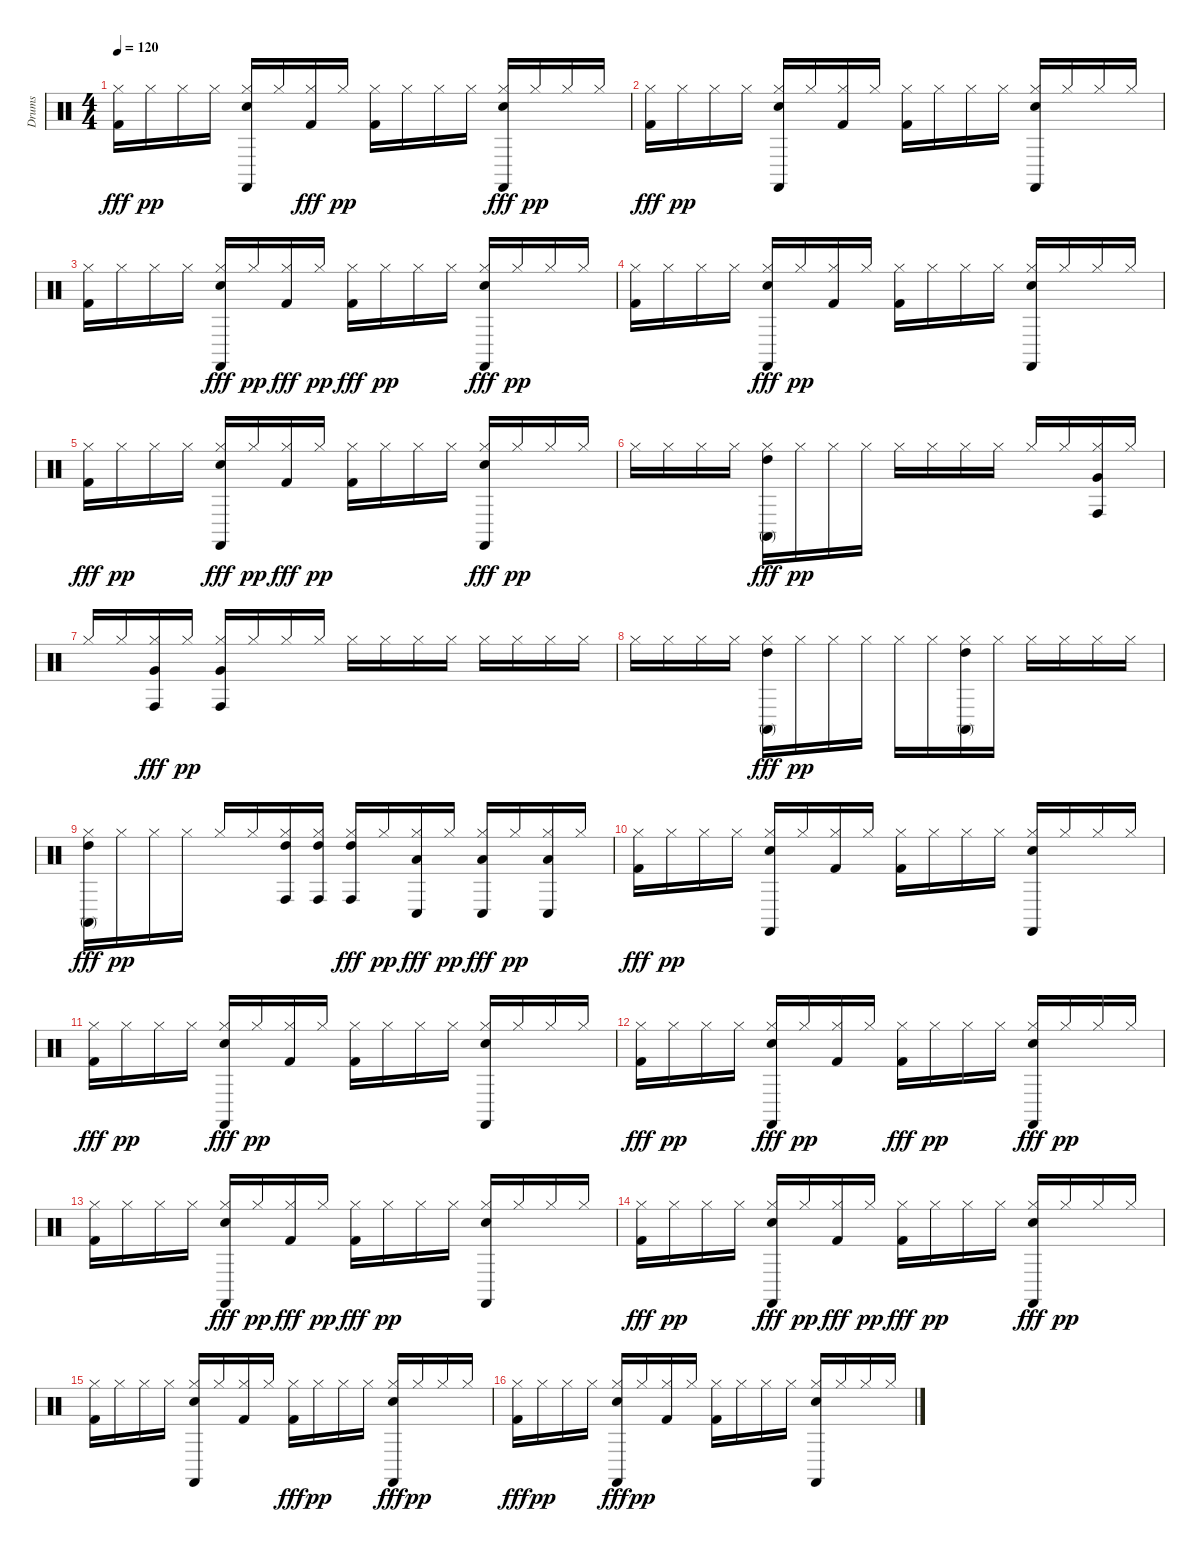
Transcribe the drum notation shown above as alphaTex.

\track ("Drums" "Drums") {instrument percussion}
\staff {score}
\articulation defaults
\ts (4 4)
\tempo 120
\clef neutral
\ks c
("Hi-Hat (closed)" "Kick (hit) 2").16{dy fff} "Hi-Hat (closed)".16{dy pp} "Hi-Hat (closed)".16 "Hi-Hat (closed)".16 ("Snare (hit) 2" "Castanets (hit)" "Hi-Hat (closed)").16 "Hi-Hat (closed)".16 ("Hi-Hat (closed)" "Kick (hit) 2").16{dy fff} "Hi-Hat (closed)".16{dy pp} ("Kick (hit) 2" "Hi-Hat (closed)").16 "Hi-Hat (closed)".16 "Hi-Hat (closed)".16 "Hi-Hat (closed)".16 ("Hi-Hat (closed)" "Castanets (hit)" "Snare (hit) 2").16{dy fff} "Hi-Hat (closed)".16{dy pp} "Hi-Hat (closed)".16 "Hi-Hat (closed)".16 |
("Hi-Hat (closed)" "Kick (hit) 2").16{dy fff} "Hi-Hat (closed)".16{dy pp} "Hi-Hat (closed)".16 "Hi-Hat (closed)".16 ("Castanets (hit)" "Snare (hit) 2" "Hi-Hat (closed)").16 "Hi-Hat (closed)".16 ("Kick (hit) 2" "Hi-Hat (closed)").16 "Hi-Hat (closed)".16 ("Kick (hit) 2" "Hi-Hat (closed)").16 "Hi-Hat (closed)".16 "Hi-Hat (closed)".16 "Hi-Hat (closed)".16 ("Castanets (hit)" "Snare (hit) 2" "Hi-Hat (closed)").16 "Hi-Hat (closed)".16 "Hi-Hat (closed)".16 "Hi-Hat (closed)".16 |
("Kick (hit) 2" "Hi-Hat (closed)").16 "Hi-Hat (closed)".16 "Hi-Hat (closed)".16 "Hi-Hat (closed)".16 ("Castanets (hit)" "Hi-Hat (closed)" "Snare (hit) 2").16{dy fff} "Hi-Hat (closed)".16{dy pp} ("Hi-Hat (closed)" "Kick (hit) 2").16{dy fff} "Hi-Hat (closed)".16{dy pp} ("Hi-Hat (closed)" "Kick (hit) 2").16{dy fff} "Hi-Hat (closed)".16{dy pp} "Hi-Hat (closed)".16 "Hi-Hat (closed)".16 ("Castanets (hit)" "Hi-Hat (closed)" "Snare (hit) 2").16{dy fff} "Hi-Hat (closed)".16{dy pp} "Hi-Hat (closed)".16 "Hi-Hat (closed)".16 |
("Kick (hit) 2" "Hi-Hat (closed)").16 "Hi-Hat (closed)".16 "Hi-Hat (closed)".16 "Hi-Hat (closed)".16 ("Hi-Hat (closed)" "Castanets (hit)" "Snare (hit) 2").16{dy fff} "Hi-Hat (closed)".16{dy pp} ("Kick (hit) 2" "Hi-Hat (closed)").16 "Hi-Hat (closed)".16 ("Kick (hit) 2" "Hi-Hat (closed)").16 "Hi-Hat (closed)".16 "Hi-Hat (closed)".16 "Hi-Hat (closed)".16 ("Snare (hit) 2" "Castanets (hit)" "Hi-Hat (closed)").16 "Hi-Hat (closed)".16 "Hi-Hat (closed)".16 "Hi-Hat (closed)".16 |
("Hi-Hat (closed)" "Kick (hit) 2").16{dy fff} "Hi-Hat (closed)".16{dy pp} "Hi-Hat (closed)".16 "Hi-Hat (closed)".16 ("Hi-Hat (closed)" "Castanets (hit)" "Snare (hit) 2").16{dy fff} "Hi-Hat (closed)".16{dy pp} ("Hi-Hat (closed)" "Kick (hit) 2").16{dy fff} "Hi-Hat (closed)".16{dy pp} ("Kick (hit) 2" "Hi-Hat (closed)").16 "Hi-Hat (closed)".16 "Hi-Hat (closed)".16 "Hi-Hat (closed)".16 ("Hi-Hat (closed)" "Castanets (hit)" "Snare (hit) 2").16{dy fff} "Hi-Hat (closed)".16{dy pp} "Hi-Hat (closed)".16 "Hi-Hat (closed)".16 |
"Hi-Hat (closed)".16 "Hi-Hat (closed)".16 "Hi-Hat (closed)".16 "Hi-Hat (closed)".16 ("Hi-Hat (closed)" "Conga high (mute)" "High Tom (hit)").16{dy fff} "Hi-Hat (closed)".16{dy pp} "Hi-Hat (closed)".16 "Hi-Hat (closed)".16 "Hi-Hat (closed)".16 "Hi-Hat (closed)".16 "Hi-Hat (closed)".16 "Hi-Hat (closed)".16 "Hi-Hat (closed)".16 "Hi-Hat (closed)".16 ("Very Low Tom (hit)" "Conga high (hit)" "Hi-Hat (closed)").16 "Hi-Hat (closed)".16 |
"Hi-Hat (closed)".16 "Hi-Hat (closed)".16 ("Hi-Hat (closed)" "Conga high (hit)" "Very Low Tom (hit)").16{dy fff} "Hi-Hat (closed)".16{dy pp} ("Conga high (hit)" "Very Low Tom (hit)" "Hi-Hat (closed)").16 "Hi-Hat (closed)".16 "Hi-Hat (closed)".16 "Hi-Hat (closed)".16 "Hi-Hat (closed)".16 "Hi-Hat (closed)".16 "Hi-Hat (closed)".16 "Hi-Hat (closed)".16 "Hi-Hat (closed)".16 "Hi-Hat (closed)".16 "Hi-Hat (closed)".16 "Hi-Hat (closed)".16 |
"Hi-Hat (closed)".16 "Hi-Hat (closed)".16 "Hi-Hat (closed)".16 "Hi-Hat (closed)".16 ("Hi-Hat (closed)" "High Tom (hit)" "Conga high (mute)").16{dy fff} "Hi-Hat (closed)".16{dy pp} "Hi-Hat (closed)".16 "Hi-Hat (closed)".16 "Hi-Hat (closed)".16 "Hi-Hat (closed)".16 ("High Tom (hit)" "Conga high (mute)" "Hi-Hat (closed)").16 "Hi-Hat (closed)".16 "Hi-Hat (closed)".16 "Hi-Hat (closed)".16 "Hi-Hat (closed)".16 "Hi-Hat (closed)".16 |
("Hi-Hat (closed)" "High Tom (hit)" "Conga high (mute)").16{dy fff} "Hi-Hat (closed)".16{dy pp} "Hi-Hat (closed)".16 "Hi-Hat (closed)".16 "Hi-Hat (closed)".16 "Hi-Hat (closed)".16 ("High Tom (hit)" "Conga high (hit)" "Hi-Hat (closed)").16 ("High Tom (hit)" "Conga high (hit)" "Hi-Hat (closed)").16 ("Hi-Hat (closed)" "Conga high (hit)" "High Tom (hit)").16{dy fff} "Hi-Hat (closed)".16{dy pp} ("Low Tom (hit)" "Hi-Hat (closed)" "Conga low (hit)").16{dy fff} "Hi-Hat (closed)".16{dy pp} ("Conga low (hit)" "Hi-Hat (closed)" "Low Tom (hit)").16{dy fff} "Hi-Hat (closed)".16{dy pp} ("Conga low (hit)" "Low Tom (hit)" "Hi-Hat (closed)").16 "Hi-Hat (closed)".16 |
("Hi-Hat (closed)" "Kick (hit) 2").16{dy fff} "Hi-Hat (closed)".16{dy pp} "Hi-Hat (closed)".16 "Hi-Hat (closed)".16 ("Castanets (hit)" "Snare (hit) 2" "Hi-Hat (closed)").16 "Hi-Hat (closed)".16 ("Kick (hit) 2" "Hi-Hat (closed)").16 "Hi-Hat (closed)".16 ("Kick (hit) 2" "Hi-Hat (closed)").16 "Hi-Hat (closed)".16 "Hi-Hat (closed)".16 "Hi-Hat (closed)".16 ("Snare (hit) 2" "Castanets (hit)" "Hi-Hat (closed)").16 "Hi-Hat (closed)".16 "Hi-Hat (closed)".16 "Hi-Hat (closed)".16 |
("Hi-Hat (closed)" "Kick (hit) 2").16{dy fff} "Hi-Hat (closed)".16{dy pp} "Hi-Hat (closed)".16 "Hi-Hat (closed)".16 ("Hi-Hat (closed)" "Snare (hit) 2" "Castanets (hit)").16{dy fff} "Hi-Hat (closed)".16{dy pp} ("Kick (hit) 2" "Hi-Hat (closed)").16 "Hi-Hat (closed)".16 ("Kick (hit) 2" "Hi-Hat (closed)").16 "Hi-Hat (closed)".16 "Hi-Hat (closed)".16 "Hi-Hat (closed)".16 ("Snare (hit) 2" "Castanets (hit)" "Hi-Hat (closed)").16 "Hi-Hat (closed)".16 "Hi-Hat (closed)".16 "Hi-Hat (closed)".16 |
("Hi-Hat (closed)" "Kick (hit) 2").16{dy fff} "Hi-Hat (closed)".16{dy pp} "Hi-Hat (closed)".16 "Hi-Hat (closed)".16 ("Hi-Hat (closed)" "Snare (hit) 2" "Castanets (hit)").16{dy fff} "Hi-Hat (closed)".16{dy pp} ("Kick (hit) 2" "Hi-Hat (closed)").16 "Hi-Hat (closed)".16 ("Hi-Hat (closed)" "Kick (hit) 2").16{dy fff} "Hi-Hat (closed)".16{dy pp} "Hi-Hat (closed)".16 "Hi-Hat (closed)".16 ("Hi-Hat (closed)" "Snare (hit) 2" "Castanets (hit)").16{dy fff} "Hi-Hat (closed)".16{dy pp} "Hi-Hat (closed)".16 "Hi-Hat (closed)".16 |
("Kick (hit) 2" "Hi-Hat (closed)").16 "Hi-Hat (closed)".16 "Hi-Hat (closed)".16 "Hi-Hat (closed)".16 ("Hi-Hat (closed)" "Castanets (hit)" "Snare (hit) 2").16{dy fff} "Hi-Hat (closed)".16{dy pp} ("Hi-Hat (closed)" "Kick (hit) 2").16{dy fff} "Hi-Hat (closed)".16{dy pp} ("Hi-Hat (closed)" "Kick (hit) 2").16{dy fff} "Hi-Hat (closed)".16{dy pp} "Hi-Hat (closed)".16 "Hi-Hat (closed)".16 ("Snare (hit) 2" "Castanets (hit)" "Hi-Hat (closed)").16 "Hi-Hat (closed)".16 "Hi-Hat (closed)".16 "Hi-Hat (closed)".16 |
("Hi-Hat (closed)" "Kick (hit) 2").16{dy fff} "Hi-Hat (closed)".16{dy pp} "Hi-Hat (closed)".16 "Hi-Hat (closed)".16 ("Hi-Hat (closed)" "Castanets (hit)" "Snare (hit) 2").16{dy fff} "Hi-Hat (closed)".16{dy pp} ("Hi-Hat (closed)" "Kick (hit) 2").16{dy fff} "Hi-Hat (closed)".16{dy pp} ("Hi-Hat (closed)" "Kick (hit) 2").16{dy fff} "Hi-Hat (closed)".16{dy pp} "Hi-Hat (closed)".16 "Hi-Hat (closed)".16 ("Hi-Hat (closed)" "Snare (hit) 2" "Castanets (hit)").16{dy fff} "Hi-Hat (closed)".16{dy pp} "Hi-Hat (closed)".16 "Hi-Hat (closed)".16 |
("Kick (hit) 2" "Hi-Hat (closed)").16 "Hi-Hat (closed)".16 "Hi-Hat (closed)".16 "Hi-Hat (closed)".16 ("Snare (hit) 2" "Castanets (hit)" "Hi-Hat (closed)").16 "Hi-Hat (closed)".16 ("Kick (hit) 2" "Hi-Hat (closed)").16 "Hi-Hat (closed)".16 ("Hi-Hat (closed)" "Kick (hit) 2").16{dy fff} "Hi-Hat (closed)".16{dy pp} "Hi-Hat (closed)".16 "Hi-Hat (closed)".16 ("Snare (hit) 2" "Hi-Hat (closed)" "Castanets (hit)").16{dy fff} "Hi-Hat (closed)".16{dy pp} "Hi-Hat (closed)".16 "Hi-Hat (closed)".16 |
("Hi-Hat (closed)" "Kick (hit) 2").16{dy fff} "Hi-Hat (closed)".16{dy pp} "Hi-Hat (closed)".16 "Hi-Hat (closed)".16 ("Castanets (hit)" "Hi-Hat (closed)" "Snare (hit) 2").16{dy fff} "Hi-Hat (closed)".16{dy pp} ("Kick (hit) 2" "Hi-Hat (closed)").16 "Hi-Hat (closed)".16 ("Kick (hit) 2" "Hi-Hat (closed)").16 "Hi-Hat (closed)".16 "Hi-Hat (closed)".16 "Hi-Hat (closed)".16 ("Castanets (hit)" "Snare (hit) 2" "Hi-Hat (closed)").16 "Hi-Hat (closed)".16 "Hi-Hat (closed)".16 "Hi-Hat (closed)".16
